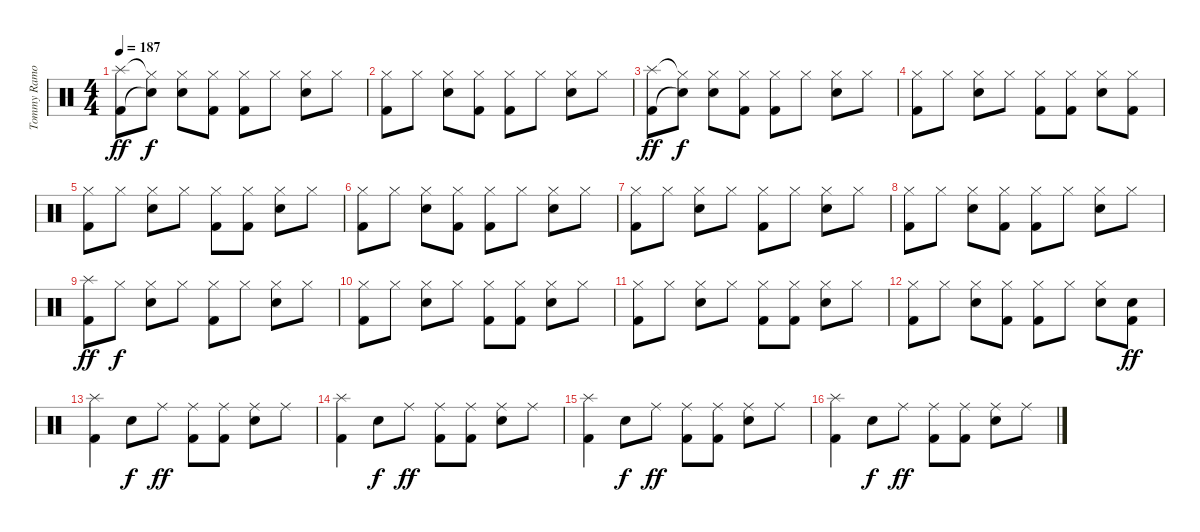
\track ("Tommy Ramone" "Tommy Ramo") {instrument percussion}
\staff {score}
\articulation defaults
\ts (4 4)
\tempo 187
\clef neutral
\ks c
("Kick (hit) 2" "Splash (hit)").8{dy ff} ("Snare (hit)"{t} "Hi-Hat (closed)"{t}).8{dy f} ("Snare (hit) 2" "Hi-Hat (closed)").8 ("Kick (hit) 2" "Hi-Hat (closed)").8 ("Kick (hit) 2" "Hi-Hat (closed)").8 "Hi-Hat (closed)".8 ("Snare (hit) 2" "Hi-Hat (closed)").8 "Hi-Hat (closed)".8 |
("Kick (hit) 2" "Hi-Hat (closed)").8 "Hi-Hat (closed)".8 ("Snare (hit) 2" "Hi-Hat (closed)").8 ("Kick (hit) 2" "Hi-Hat (closed)").8 ("Kick (hit) 2" "Hi-Hat (closed)").8 "Hi-Hat (closed)".8 ("Snare (hit) 2" "Hi-Hat (closed)").8 "Hi-Hat (closed)".8 |
("Kick (hit) 2" "Splash (hit)").8{dy ff} ("Snare (hit)"{t} "Hi-Hat (closed)"{t}).8{dy f} ("Snare (hit) 2" "Hi-Hat (closed)").8 ("Kick (hit) 2" "Hi-Hat (closed)").8 ("Kick (hit) 2" "Hi-Hat (closed)").8 "Hi-Hat (closed)".8 ("Snare (hit) 2" "Hi-Hat (closed)").8 "Hi-Hat (closed)".8 |
("Kick (hit) 2" "Hi-Hat (closed)").8 "Hi-Hat (closed)".8 ("Snare (hit) 2" "Hi-Hat (closed)").8 "Hi-Hat (closed)".8 ("Kick (hit) 2" "Hi-Hat (closed)").8 ("Kick (hit) 2" "Hi-Hat (closed)").8 ("Snare (hit) 2" "Hi-Hat (closed)").8 ("Kick (hit) 2" "Hi-Hat (closed)").8 |
("Kick (hit) 2" "Hi-Hat (closed)").8 "Hi-Hat (closed)".8 ("Snare (hit) 2" "Hi-Hat (closed)").8 "Hi-Hat (closed)".8 ("Kick (hit) 2" "Hi-Hat (closed)").8 ("Kick (hit) 2" "Hi-Hat (closed)").8 ("Snare (hit) 2" "Hi-Hat (closed)").8 "Hi-Hat (closed)".8 |
("Kick (hit) 2" "Hi-Hat (closed)").8 "Hi-Hat (closed)".8 ("Snare (hit) 2" "Hi-Hat (closed)").8 ("Kick (hit) 2" "Hi-Hat (closed)").8 ("Kick (hit) 2" "Hi-Hat (closed)").8 "Hi-Hat (closed)".8 ("Snare (hit) 2" "Hi-Hat (closed)").8 "Hi-Hat (closed)".8 |
("Kick (hit) 2" "Hi-Hat (closed)").8 "Hi-Hat (closed)".8 ("Snare (hit) 2" "Hi-Hat (closed)").8 "Hi-Hat (closed)".8 ("Kick (hit) 2" "Hi-Hat (closed)").8 "Hi-Hat (closed)".8 ("Snare (hit) 2" "Hi-Hat (closed)").8 "Hi-Hat (closed)".8 |
("Kick (hit) 2" "Hi-Hat (closed)").8 "Hi-Hat (closed)".8 ("Snare (hit) 2" "Hi-Hat (closed)").8 ("Kick (hit) 2" "Hi-Hat (closed)").8 ("Kick (hit) 2" "Hi-Hat (closed)").8 "Hi-Hat (closed)".8 ("Snare (hit) 2" "Hi-Hat (closed)").8 "Hi-Hat (closed)".8 |
("Kick (hit) 2" "Splash (hit)").8{dy ff} "Hi-Hat (closed)".8{dy f} ("Snare (hit) 2" "Hi-Hat (closed)").8 "Hi-Hat (closed)".8 ("Kick (hit) 2" "Hi-Hat (closed)").8 "Hi-Hat (closed)".8 ("Snare (hit) 2" "Hi-Hat (closed)").8 "Hi-Hat (closed)".8 |
("Kick (hit) 2" "Hi-Hat (closed)").8 "Hi-Hat (closed)".8 ("Snare (hit) 2" "Hi-Hat (closed)").8 "Hi-Hat (closed)".8 ("Kick (hit) 2" "Hi-Hat (closed)").8 ("Kick (hit) 2" "Hi-Hat (closed)").8 ("Snare (hit) 2" "Hi-Hat (closed)").8 "Hi-Hat (closed)".8 |
("Kick (hit) 2" "Hi-Hat (closed)").8 "Hi-Hat (closed)".8 ("Snare (hit) 2" "Hi-Hat (closed)").8 "Hi-Hat (closed)".8 ("Kick (hit) 2" "Hi-Hat (closed)").8 ("Kick (hit) 2" "Hi-Hat (closed)").8 ("Snare (hit) 2" "Hi-Hat (closed)").8 "Hi-Hat (closed)".8 |
("Kick (hit) 2" "Hi-Hat (closed)").8 "Hi-Hat (closed)".8 ("Snare (hit) 2" "Hi-Hat (closed)").8 ("Kick (hit) 2" "Hi-Hat (closed)").8 ("Kick (hit) 2" "Hi-Hat (closed)").8 "Hi-Hat (closed)".8 ("Snare (hit) 2" "Hi-Hat (closed)").8 ("Kick (hit) 2" "Hand Clap (hit)").8{dy ff} |
("Kick (hit) 2" "Splash (hit)").4 "Snare (hit) 2".8{dy f} "Ride (middle)".8{dy ff} ("Kick (hit) 2" "Ride (middle)").8 ("Kick (hit) 2" "Ride (middle)").8 ("Snare (hit) 2" "Ride (middle)").8 "Ride (middle)".8 |
("Kick (hit) 2" "Splash (hit)").4 "Snare (hit) 2".8{dy f} "Ride (middle)".8{dy ff} ("Kick (hit) 2" "Ride (middle)").8 ("Kick (hit) 2" "Ride (middle)").8 ("Snare (hit) 2" "Ride (middle)").8 "Ride (middle)".8 |
("Kick (hit) 2" "Splash (hit)").4 "Snare (hit) 2".8{dy f} "Ride (middle)".8{dy ff} ("Kick (hit) 2" "Ride (middle)").8 ("Kick (hit) 2" "Ride (middle)").8 ("Snare (hit) 2" "Ride (middle)").8 "Ride (middle)".8 |
("Kick (hit) 2" "Splash (hit)").4 "Snare (hit) 2".8{dy f} "Ride (middle)".8{dy ff} ("Kick (hit) 2" "Ride (middle)").8 ("Kick (hit) 2" "Ride (middle)").8 ("Snare (hit) 2" "Ride (middle)").8 "Ride (middle)".8
